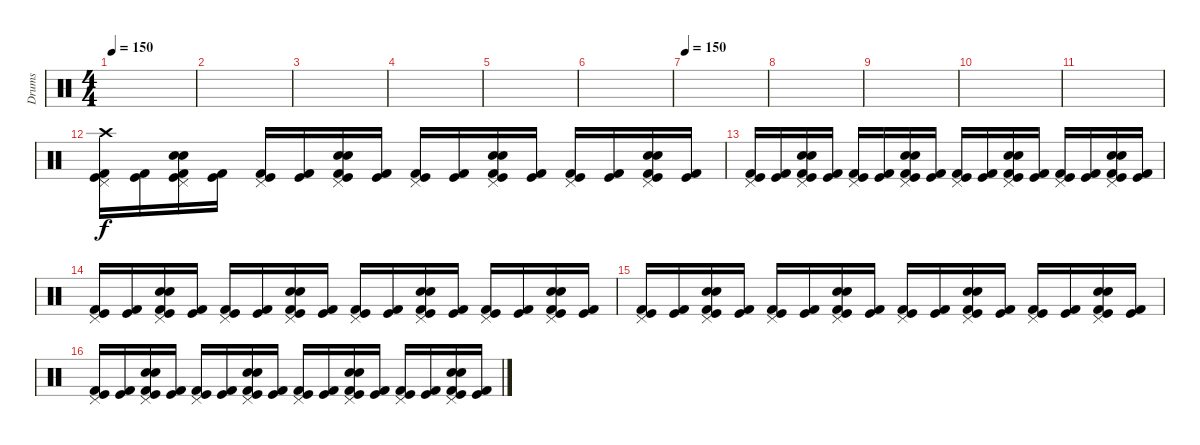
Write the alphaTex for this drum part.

\track ("Drums" "Drums") {instrument percussion}
\staff {score}
\articulation defaults
\ts (4 4)
\tempo 150
\clef neutral
\ks c
|
|
|
|
|
|
\tempo 150
|
|
|
|
|
("Crash high (hit)" "Pedal Hi-Hat (hit)" "Kick (hit) 2" "Kick (hit)").16 ("Kick (hit) 2" "Kick (hit)").16 ("Pedal Hi-Hat (hit)" "Electric Snare (hit)" "Snare (hit) 2" "Kick (hit) 2" "Kick (hit)").16 ("Kick (hit) 2" "Kick (hit)").16 ("Pedal Hi-Hat (hit)" "Kick (hit) 2" "Kick (hit)").16 ("Kick (hit) 2" "Kick (hit)").16 ("Pedal Hi-Hat (hit)" "Electric Snare (hit)" "Snare (hit) 2" "Kick (hit) 2" "Kick (hit)").16 ("Kick (hit) 2" "Kick (hit)").16 ("Pedal Hi-Hat (hit)" "Kick (hit) 2" "Kick (hit)").16 ("Kick (hit) 2" "Kick (hit)").16 ("Pedal Hi-Hat (hit)" "Electric Snare (hit)" "Snare (hit) 2" "Kick (hit) 2" "Kick (hit)").16 ("Kick (hit) 2" "Kick (hit)").16 ("Pedal Hi-Hat (hit)" "Kick (hit) 2" "Kick (hit)").16 ("Kick (hit) 2" "Kick (hit)").16 ("Pedal Hi-Hat (hit)" "Electric Snare (hit)" "Snare (hit) 2" "Kick (hit) 2" "Kick (hit)").16 ("Kick (hit) 2" "Kick (hit)").16 |
("Pedal Hi-Hat (hit)" "Kick (hit) 2" "Kick (hit)").16 ("Kick (hit) 2" "Kick (hit)").16 ("Pedal Hi-Hat (hit)" "Electric Snare (hit)" "Snare (hit) 2" "Kick (hit) 2" "Kick (hit)").16 ("Kick (hit) 2" "Kick (hit)").16 ("Pedal Hi-Hat (hit)" "Kick (hit) 2" "Kick (hit)").16 ("Kick (hit) 2" "Kick (hit)").16 ("Pedal Hi-Hat (hit)" "Electric Snare (hit)" "Snare (hit) 2" "Kick (hit) 2" "Kick (hit)").16 ("Kick (hit) 2" "Kick (hit)").16 ("Pedal Hi-Hat (hit)" "Kick (hit) 2" "Kick (hit)").16 ("Kick (hit) 2" "Kick (hit)").16 ("Pedal Hi-Hat (hit)" "Electric Snare (hit)" "Snare (hit) 2" "Kick (hit) 2" "Kick (hit)").16 ("Kick (hit) 2" "Kick (hit)").16 ("Pedal Hi-Hat (hit)" "Kick (hit) 2" "Kick (hit)").16 ("Kick (hit) 2" "Kick (hit)").16 ("Pedal Hi-Hat (hit)" "Electric Snare (hit)" "Snare (hit) 2" "Kick (hit) 2" "Kick (hit)").16 ("Kick (hit) 2" "Kick (hit)").16 |
("Pedal Hi-Hat (hit)" "Kick (hit) 2" "Kick (hit)").16 ("Kick (hit) 2" "Kick (hit)").16 ("Pedal Hi-Hat (hit)" "Electric Snare (hit)" "Snare (hit) 2" "Kick (hit) 2" "Kick (hit)").16 ("Kick (hit) 2" "Kick (hit)").16 ("Pedal Hi-Hat (hit)" "Kick (hit) 2" "Kick (hit)").16 ("Kick (hit) 2" "Kick (hit)").16 ("Pedal Hi-Hat (hit)" "Electric Snare (hit)" "Snare (hit) 2" "Kick (hit) 2" "Kick (hit)").16 ("Kick (hit) 2" "Kick (hit)").16 ("Pedal Hi-Hat (hit)" "Kick (hit) 2" "Kick (hit)").16 ("Kick (hit) 2" "Kick (hit)").16 ("Pedal Hi-Hat (hit)" "Electric Snare (hit)" "Snare (hit) 2" "Kick (hit) 2" "Kick (hit)").16 ("Kick (hit) 2" "Kick (hit)").16 ("Pedal Hi-Hat (hit)" "Kick (hit) 2" "Kick (hit)").16 ("Kick (hit) 2" "Kick (hit)").16 ("Pedal Hi-Hat (hit)" "Electric Snare (hit)" "Snare (hit) 2" "Kick (hit) 2" "Kick (hit)").16 ("Kick (hit) 2" "Kick (hit)").16 |
("Pedal Hi-Hat (hit)" "Kick (hit) 2" "Kick (hit)").16 ("Kick (hit) 2" "Kick (hit)").16 ("Pedal Hi-Hat (hit)" "Electric Snare (hit)" "Snare (hit) 2" "Kick (hit) 2" "Kick (hit)").16 ("Kick (hit) 2" "Kick (hit)").16 ("Pedal Hi-Hat (hit)" "Kick (hit) 2" "Kick (hit)").16 ("Kick (hit) 2" "Kick (hit)").16 ("Pedal Hi-Hat (hit)" "Electric Snare (hit)" "Snare (hit) 2" "Kick (hit) 2" "Kick (hit)").16 ("Kick (hit) 2" "Kick (hit)").16 ("Pedal Hi-Hat (hit)" "Kick (hit) 2" "Kick (hit)").16 ("Kick (hit) 2" "Kick (hit)").16 ("Pedal Hi-Hat (hit)" "Electric Snare (hit)" "Snare (hit) 2" "Kick (hit) 2" "Kick (hit)").16 ("Kick (hit) 2" "Kick (hit)").16 ("Pedal Hi-Hat (hit)" "Kick (hit) 2" "Kick (hit)").16 ("Kick (hit) 2" "Kick (hit)").16 ("Pedal Hi-Hat (hit)" "Electric Snare (hit)" "Snare (hit) 2" "Kick (hit) 2" "Kick (hit)").16 ("Kick (hit) 2" "Kick (hit)").16 |
("Pedal Hi-Hat (hit)" "Kick (hit) 2" "Kick (hit)").16 ("Kick (hit) 2" "Kick (hit)").16 ("Pedal Hi-Hat (hit)" "Electric Snare (hit)" "Snare (hit) 2" "Kick (hit) 2" "Kick (hit)").16 ("Kick (hit) 2" "Kick (hit)").16 ("Pedal Hi-Hat (hit)" "Kick (hit) 2" "Kick (hit)").16 ("Kick (hit) 2" "Kick (hit)").16 ("Pedal Hi-Hat (hit)" "Electric Snare (hit)" "Snare (hit) 2" "Kick (hit) 2" "Kick (hit)").16 ("Kick (hit) 2" "Kick (hit)").16 ("Pedal Hi-Hat (hit)" "Kick (hit) 2" "Kick (hit)").16 ("Kick (hit) 2" "Kick (hit)").16 ("Pedal Hi-Hat (hit)" "Electric Snare (hit)" "Snare (hit) 2" "Kick (hit) 2" "Kick (hit)").16 ("Kick (hit) 2" "Kick (hit)").16 ("Pedal Hi-Hat (hit)" "Kick (hit) 2" "Kick (hit)").16 ("Kick (hit) 2" "Kick (hit)").16 ("Pedal Hi-Hat (hit)" "Electric Snare (hit)" "Snare (hit) 2" "Kick (hit) 2" "Kick (hit)").16 ("Kick (hit) 2" "Kick (hit)").16
